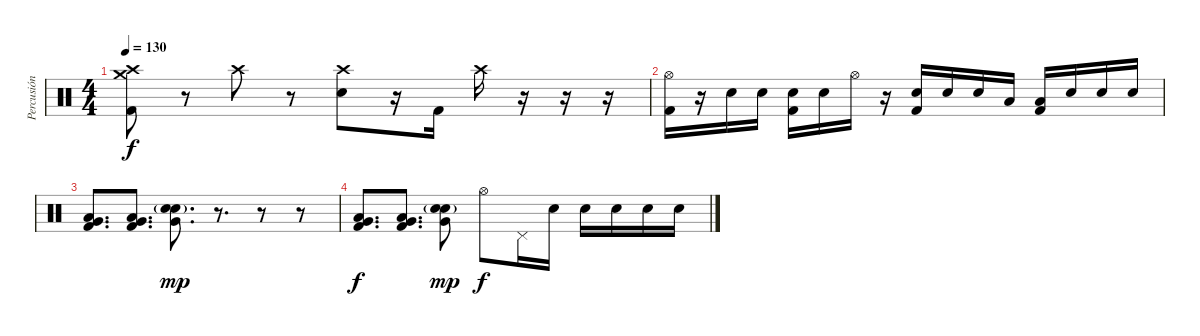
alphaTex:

\track ("Percusión" "Percusión") {instrument percussion}
\staff {score}
\articulation defaults
\ts (4 4)
\tempo 130
\clef neutral
\ks c
("Crash medium (hit)" "Crash high (hit)" "Kick (hit) 2").8{dy f} r.8 "Crash high (hit)".8 r.8 ("Crash high (hit)" "Electric Snare (hit)").8 r.16 "Kick (hit) 2".16 "Crash high (hit)".16 r.16 r.16 r.16 |
("Hi-Hat (open)" "Kick (hit) 2").16 r.16 "Electric Snare (hit)".16 "Electric Snare (hit)".16 ("Electric Snare (hit)" "Kick (hit) 2").16 "Electric Snare (hit)".16 "Hi-Hat (open)".16 r.16 ("Electric Snare (hit)" "Kick (hit) 2").16 "Electric Snare (hit)".16 "Electric Snare (hit)".16 "Low Tom (hit)".16 ("Low Tom (hit)" "Kick (hit) 2").16 "Electric Snare (hit)".16 "Electric Snare (hit)".16 "Electric Snare (hit)".16 |
("Low Floor Tom (hit)" "Very Low Tom (hit)" "Kick (hit) 2").8{d} ("Low Floor Tom (hit)" "Very Low Tom (hit)" "Kick (hit) 2").8{d} ("Hand Clap (hit)"{g} "Very Low Tom (hit)" "Electric Snare (hit)").8{d dy mp} r.8{d} r.8 r.8 |
("Low Floor Tom (hit)" "Very Low Tom (hit)" "Kick (hit) 2").8{d dy f} ("Low Floor Tom (hit)" "Very Low Tom (hit)" "Kick (hit) 2").8{d} ("Hand Clap (hit)"{g} "Very Low Tom (hit)" "Electric Snare (hit)").8{dy mp} "Hi-Hat (open)".8{dy f} "Pedal Hi-Hat (hit)".16 "Electric Snare (hit)".16 "Electric Snare (hit)".16 "Electric Snare (hit)".16 "Electric Snare (hit)".16 "Electric Snare (hit)".16
